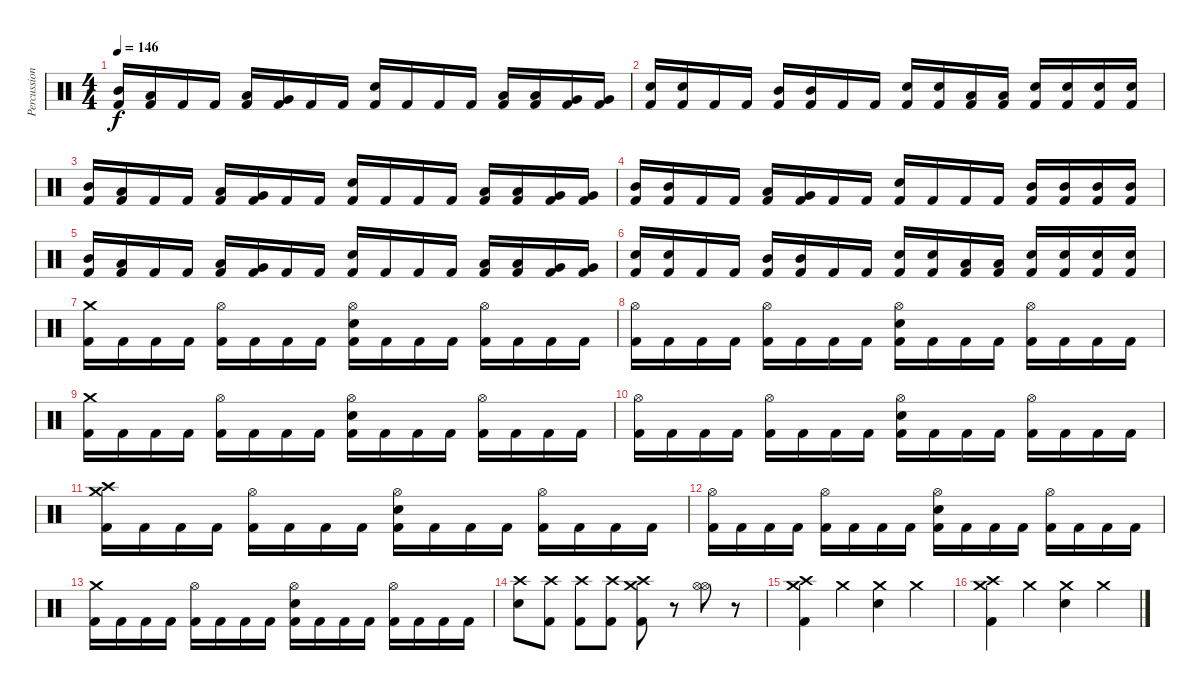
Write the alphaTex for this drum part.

\track ("Percussion" "Percussion") {instrument percussion}
\staff {score}
\articulation defaults
\ts (4 4)
\tempo 146
\clef neutral
\ks c
("Mid Tom (hit)" "Kick (hit) 2").16{dy f} ("Low Tom (hit)" "Kick (hit) 2").16 "Kick (hit) 2".16 "Kick (hit) 2".16 ("Low Tom (hit)" "Kick (hit) 2").16 ("Very Low Tom (hit)" "Kick (hit) 2").16 "Kick (hit) 2".16 "Kick (hit) 2".16 ("Snare (hit) 2" "Kick (hit) 2").16 "Kick (hit) 2".16 "Kick (hit) 2".16 "Kick (hit) 2".16 ("Low Tom (hit)" "Kick (hit) 2").16 ("Low Tom (hit)" "Kick (hit) 2").16 ("Very Low Tom (hit)" "Kick (hit) 2").16 ("Very Low Tom (hit)" "Kick (hit) 2").16 |
("Snare (hit) 2" "Kick (hit) 2").16 ("Snare (hit) 2" "Kick (hit) 2").16 "Kick (hit) 2".16 "Kick (hit) 2".16 ("Mid Tom (hit)" "Kick (hit) 2").16 ("Mid Tom (hit)" "Kick (hit) 2").16 "Kick (hit) 2".16 "Kick (hit) 2".16 ("Snare (hit) 2" "Kick (hit) 2").16 ("Snare (hit) 2" "Kick (hit) 2").16 ("Low Tom (hit)" "Kick (hit) 2").16 ("Low Tom (hit)" "Kick (hit) 2").16 ("Snare (hit) 2" "Kick (hit) 2").16 ("Snare (hit) 2" "Kick (hit) 2").16 ("Snare (hit) 2" "Kick (hit) 2").16 ("Snare (hit) 2" "Kick (hit) 2").16 |
("Mid Tom (hit)" "Kick (hit) 2").16 ("Low Tom (hit)" "Kick (hit) 2").16 "Kick (hit) 2".16 "Kick (hit) 2".16 ("Low Tom (hit)" "Kick (hit) 2").16 ("Very Low Tom (hit)" "Kick (hit) 2").16 "Kick (hit) 2".16 "Kick (hit) 2".16 ("Snare (hit) 2" "Kick (hit) 2").16 "Kick (hit) 2".16 "Kick (hit) 2".16 "Kick (hit) 2".16 ("Low Tom (hit)" "Kick (hit) 2").16 ("Low Tom (hit)" "Kick (hit) 2").16 ("Very Low Tom (hit)" "Kick (hit) 2").16 ("Very Low Tom (hit)" "Kick (hit) 2").16 |
("Mid Tom (hit)" "Kick (hit) 2").16 ("Mid Tom (hit)" "Kick (hit) 2").16 "Kick (hit) 2".16 "Kick (hit) 2".16 ("Low Tom (hit)" "Kick (hit) 2").16 ("Very Low Tom (hit)" "Kick (hit) 2").16 "Kick (hit) 2".16 "Kick (hit) 2".16 ("Snare (hit) 2" "Kick (hit) 2").16 "Kick (hit) 2".16 "Kick (hit) 2".16 "Kick (hit) 2".16 ("Mid Tom (hit)" "Kick (hit) 2").16 ("Mid Tom (hit)" "Kick (hit) 2").16 ("Mid Tom (hit)" "Kick (hit) 2").16 ("Mid Tom (hit)" "Kick (hit) 2").16 |
("Mid Tom (hit)" "Kick (hit) 2").16 ("Low Tom (hit)" "Kick (hit) 2").16 "Kick (hit) 2".16 "Kick (hit) 2".16 ("Low Tom (hit)" "Kick (hit) 2").16 ("Very Low Tom (hit)" "Kick (hit) 2").16 "Kick (hit) 2".16 "Kick (hit) 2".16 ("Snare (hit) 2" "Kick (hit) 2").16 "Kick (hit) 2".16 "Kick (hit) 2".16 "Kick (hit) 2".16 ("Low Tom (hit)" "Kick (hit) 2").16 ("Low Tom (hit)" "Kick (hit) 2").16 ("Very Low Tom (hit)" "Kick (hit) 2").16 ("Very Low Tom (hit)" "Kick (hit) 2").16 |
("Snare (hit) 2" "Kick (hit) 2").16 ("Snare (hit) 2" "Kick (hit) 2").16 "Kick (hit) 2".16 "Kick (hit) 2".16 ("Mid Tom (hit)" "Kick (hit) 2").16 ("Mid Tom (hit)" "Kick (hit) 2").16 "Kick (hit) 2".16 "Kick (hit) 2".16 ("Snare (hit) 2" "Kick (hit) 2").16 ("Snare (hit) 2" "Kick (hit) 2").16 ("Low Tom (hit)" "Kick (hit) 2").16 ("Low Tom (hit)" "Kick (hit) 2").16 ("Snare (hit) 2" "Kick (hit) 2").16 ("Snare (hit) 2" "Kick (hit) 2").16 ("Snare (hit) 2" "Kick (hit) 2").16 ("Snare (hit) 2" "Kick (hit) 2").16 |
("Crash medium (hit)" "Kick (hit) 2").16 "Kick (hit) 2".16 "Kick (hit) 2".16 "Kick (hit) 2".16 ("Hi-Hat (open)" "Kick (hit) 2").16 "Kick (hit) 2".16 "Kick (hit) 2".16 "Kick (hit) 2".16 ("Hi-Hat (open)" "Snare (hit) 2" "Kick (hit) 2").16 "Kick (hit) 2".16 "Kick (hit) 2".16 "Kick (hit) 2".16 ("Hi-Hat (open)" "Kick (hit) 2").16 "Kick (hit) 2".16 "Kick (hit) 2".16 "Kick (hit) 2".16 |
("Hi-Hat (open)" "Kick (hit) 2").16 "Kick (hit) 2".16 "Kick (hit) 2".16 "Kick (hit) 2".16 ("Hi-Hat (open)" "Kick (hit) 2").16 "Kick (hit) 2".16 "Kick (hit) 2".16 "Kick (hit) 2".16 ("Hi-Hat (open)" "Snare (hit) 2" "Kick (hit) 2").16 "Kick (hit) 2".16 "Kick (hit) 2".16 "Kick (hit) 2".16 ("Hi-Hat (open)" "Kick (hit) 2").16 "Kick (hit) 2".16 "Kick (hit) 2".16 "Kick (hit) 2".16 |
("Crash medium (hit)" "Kick (hit) 2").16 "Kick (hit) 2".16 "Kick (hit) 2".16 "Kick (hit) 2".16 ("Hi-Hat (open)" "Kick (hit) 2").16 "Kick (hit) 2".16 "Kick (hit) 2".16 "Kick (hit) 2".16 ("Hi-Hat (open)" "Snare (hit) 2" "Kick (hit) 2").16 "Kick (hit) 2".16 "Kick (hit) 2".16 "Kick (hit) 2".16 ("Hi-Hat (open)" "Kick (hit) 2").16 "Kick (hit) 2".16 "Kick (hit) 2".16 "Kick (hit) 2".16 |
("Hi-Hat (open)" "Kick (hit) 2").16 "Kick (hit) 2".16 "Kick (hit) 2".16 "Kick (hit) 2".16 ("Hi-Hat (open)" "Kick (hit) 2").16 "Kick (hit) 2".16 "Kick (hit) 2".16 "Kick (hit) 2".16 ("Hi-Hat (open)" "Snare (hit) 2" "Kick (hit) 2").16 "Kick (hit) 2".16 "Kick (hit) 2".16 "Kick (hit) 2".16 ("Hi-Hat (open)" "Kick (hit) 2").16 "Kick (hit) 2".16 "Kick (hit) 2".16 "Kick (hit) 2".16 |
("Crash high (hit)" "Crash medium (hit)" "Kick (hit) 2").16 "Kick (hit) 2".16 "Kick (hit) 2".16 "Kick (hit) 2".16 ("Hi-Hat (open)" "Kick (hit) 2").16 "Kick (hit) 2".16 "Kick (hit) 2".16 "Kick (hit) 2".16 ("Hi-Hat (open)" "Snare (hit) 2" "Kick (hit) 2").16 "Kick (hit) 2".16 "Kick (hit) 2".16 "Kick (hit) 2".16 ("Hi-Hat (open)" "Kick (hit) 2").16 "Kick (hit) 2".16 "Kick (hit) 2".16 "Kick (hit) 2".16 |
("Hi-Hat (open)" "Kick (hit) 2").16 "Kick (hit) 2".16 "Kick (hit) 2".16 "Kick (hit) 2".16 ("Hi-Hat (open)" "Kick (hit) 2").16 "Kick (hit) 2".16 "Kick (hit) 2".16 "Kick (hit) 2".16 ("Hi-Hat (open)" "Snare (hit) 2" "Kick (hit) 2").16 "Kick (hit) 2".16 "Kick (hit) 2".16 "Kick (hit) 2".16 ("Hi-Hat (open)" "Kick (hit) 2").16 "Kick (hit) 2".16 "Kick (hit) 2".16 "Kick (hit) 2".16 |
("Crash medium (hit)" "Kick (hit) 2").16 "Kick (hit) 2".16 "Kick (hit) 2".16 "Kick (hit) 2".16 ("Hi-Hat (open)" "Kick (hit) 2").16 "Kick (hit) 2".16 "Kick (hit) 2".16 "Kick (hit) 2".16 ("Hi-Hat (open)" "Snare (hit) 2" "Kick (hit) 2").16 "Kick (hit) 2".16 "Kick (hit) 2".16 "Kick (hit) 2".16 ("Hi-Hat (open)" "Kick (hit) 2").16 "Kick (hit) 2".16 "Kick (hit) 2".16 "Kick (hit) 2".16 |
("Crash high (hit)" "Snare (hit) 2").8 ("Crash high (hit)" "Kick (hit) 2").8 ("Crash high (hit)" "Kick (hit) 2").8 ("Crash high (hit)" "Kick (hit) 2").8 ("Crash high (hit)" "Crash medium (hit)" "Kick (hit) 2").8 r.8 ("Hi-Hat (open)" "Hi-Hat (open)").8 r.8 |
("Crash high (hit)" "Crash medium (hit)" "Kick (hit) 2").4 "Crash medium (hit)".4 ("Crash medium (hit)" "Snare (hit) 2").4 "Crash medium (hit)".4 |
("Crash high (hit)" "Crash medium (hit)" "Kick (hit) 2").4 "Crash medium (hit)".4 ("Crash medium (hit)" "Snare (hit) 2").4 "Crash medium (hit)".4
